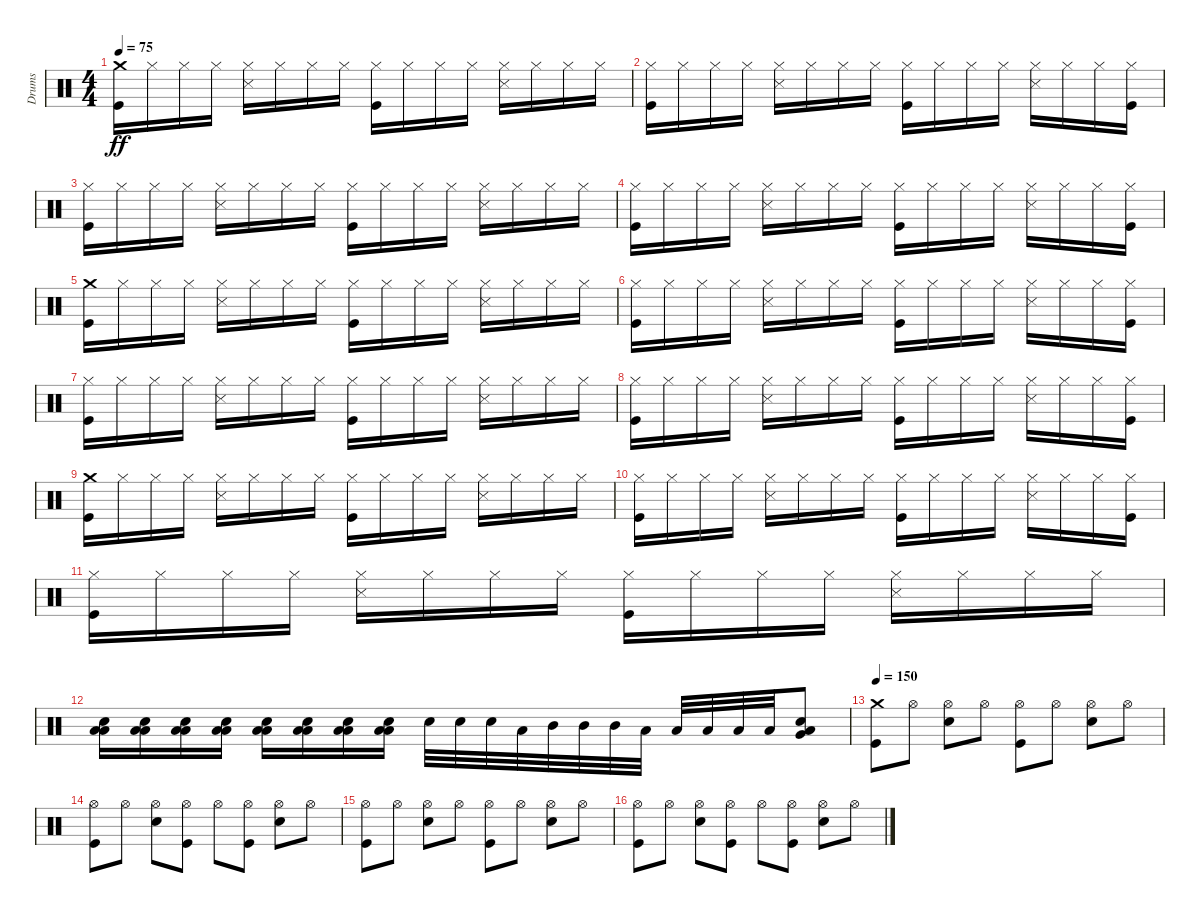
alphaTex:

\track ("Drums" "Drums") {instrument percussion}
\staff {score}
\articulation defaults
\ts (4 4)
\tempo 75
\clef neutral
\ks c
("Kick (hit)" "Crash medium (hit)").16{dy ff} "Hi-Hat (closed)".16 "Hi-Hat (closed)".16 "Hi-Hat (closed)".16 ("Snare (side stick) 3" "Hi-Hat (closed)").16 "Hi-Hat (closed)".16 "Hi-Hat (closed)".16 "Hi-Hat (closed)".16 ("Kick (hit)" "Hi-Hat (closed)").16 "Hi-Hat (closed)".16 "Hi-Hat (closed)".16 "Hi-Hat (closed)".16 ("Snare (side stick) 3" "Hi-Hat (closed)").16 "Hi-Hat (closed)".16 "Hi-Hat (closed)".16 "Hi-Hat (closed)".16 |
("Kick (hit)" "Hi-Hat (closed)").16 "Hi-Hat (closed)".16 "Hi-Hat (closed)".16 "Hi-Hat (closed)".16 ("Snare (side stick) 3" "Hi-Hat (closed)").16 "Hi-Hat (closed)".16 "Hi-Hat (closed)".16 "Hi-Hat (closed)".16 ("Kick (hit)" "Hi-Hat (closed)").16 "Hi-Hat (closed)".16 "Hi-Hat (closed)".16 "Hi-Hat (closed)".16 ("Snare (side stick) 3" "Hi-Hat (closed)").16 "Hi-Hat (closed)".16 "Hi-Hat (closed)".16 ("Kick (hit)" "Hi-Hat (closed)").16 |
("Kick (hit)" "Hi-Hat (closed)").16 "Hi-Hat (closed)".16 "Hi-Hat (closed)".16 "Hi-Hat (closed)".16 ("Snare (side stick) 3" "Hi-Hat (closed)").16 "Hi-Hat (closed)".16 "Hi-Hat (closed)".16 "Hi-Hat (closed)".16 ("Kick (hit)" "Hi-Hat (closed)").16 "Hi-Hat (closed)".16 "Hi-Hat (closed)".16 "Hi-Hat (closed)".16 ("Snare (side stick) 3" "Hi-Hat (closed)").16 "Hi-Hat (closed)".16 "Hi-Hat (closed)".16 "Hi-Hat (closed)".16 |
("Kick (hit)" "Hi-Hat (closed)").16 "Hi-Hat (closed)".16 "Hi-Hat (closed)".16 "Hi-Hat (closed)".16 ("Snare (side stick) 3" "Hi-Hat (closed)").16 "Hi-Hat (closed)".16 "Hi-Hat (closed)".16 "Hi-Hat (closed)".16 ("Kick (hit)" "Hi-Hat (closed)").16 "Hi-Hat (closed)".16 "Hi-Hat (closed)".16 "Hi-Hat (closed)".16 ("Snare (side stick) 3" "Hi-Hat (closed)").16 "Hi-Hat (closed)".16 "Hi-Hat (closed)".16 ("Kick (hit)" "Hi-Hat (closed)").16 |
("Kick (hit)" "Crash medium (hit)").16 "Hi-Hat (closed)".16 "Hi-Hat (closed)".16 "Hi-Hat (closed)".16 ("Snare (side stick) 3" "Hi-Hat (closed)").16 "Hi-Hat (closed)".16 "Hi-Hat (closed)".16 "Hi-Hat (closed)".16 ("Kick (hit)" "Hi-Hat (closed)").16 "Hi-Hat (closed)".16 "Hi-Hat (closed)".16 "Hi-Hat (closed)".16 ("Snare (side stick) 3" "Hi-Hat (closed)").16 "Hi-Hat (closed)".16 "Hi-Hat (closed)".16 "Hi-Hat (closed)".16 |
("Kick (hit)" "Hi-Hat (closed)").16 "Hi-Hat (closed)".16 "Hi-Hat (closed)".16 "Hi-Hat (closed)".16 ("Snare (side stick) 3" "Hi-Hat (closed)").16 "Hi-Hat (closed)".16 "Hi-Hat (closed)".16 "Hi-Hat (closed)".16 ("Kick (hit)" "Hi-Hat (closed)").16 "Hi-Hat (closed)".16 "Hi-Hat (closed)".16 "Hi-Hat (closed)".16 ("Snare (side stick) 3" "Hi-Hat (closed)").16 "Hi-Hat (closed)".16 "Hi-Hat (closed)".16 ("Kick (hit)" "Hi-Hat (closed)").16 |
("Kick (hit)" "Hi-Hat (closed)").16 "Hi-Hat (closed)".16 "Hi-Hat (closed)".16 "Hi-Hat (closed)".16 ("Snare (side stick) 3" "Hi-Hat (closed)").16 "Hi-Hat (closed)".16 "Hi-Hat (closed)".16 "Hi-Hat (closed)".16 ("Kick (hit)" "Hi-Hat (closed)").16 "Hi-Hat (closed)".16 "Hi-Hat (closed)".16 "Hi-Hat (closed)".16 ("Snare (side stick) 3" "Hi-Hat (closed)").16 "Hi-Hat (closed)".16 "Hi-Hat (closed)".16 "Hi-Hat (closed)".16 |
("Kick (hit)" "Hi-Hat (closed)").16 "Hi-Hat (closed)".16 "Hi-Hat (closed)".16 "Hi-Hat (closed)".16 ("Snare (side stick) 3" "Hi-Hat (closed)").16 "Hi-Hat (closed)".16 "Hi-Hat (closed)".16 "Hi-Hat (closed)".16 ("Kick (hit)" "Hi-Hat (closed)").16 "Hi-Hat (closed)".16 "Hi-Hat (closed)".16 "Hi-Hat (closed)".16 ("Snare (side stick) 3" "Hi-Hat (closed)").16 "Hi-Hat (closed)".16 "Hi-Hat (closed)".16 ("Kick (hit)" "Hi-Hat (closed)").16 |
("Kick (hit)" "Crash medium (hit)").16 "Hi-Hat (closed)".16 "Hi-Hat (closed)".16 "Hi-Hat (closed)".16 ("Snare (side stick) 3" "Hi-Hat (closed)").16 "Hi-Hat (closed)".16 "Hi-Hat (closed)".16 "Hi-Hat (closed)".16 ("Kick (hit)" "Hi-Hat (closed)").16 "Hi-Hat (closed)".16 "Hi-Hat (closed)".16 "Hi-Hat (closed)".16 ("Snare (side stick) 3" "Hi-Hat (closed)").16 "Hi-Hat (closed)".16 "Hi-Hat (closed)".16 "Hi-Hat (closed)".16 |
("Kick (hit)" "Hi-Hat (closed)").16 "Hi-Hat (closed)".16 "Hi-Hat (closed)".16 "Hi-Hat (closed)".16 ("Snare (side stick) 3" "Hi-Hat (closed)").16 "Hi-Hat (closed)".16 "Hi-Hat (closed)".16 "Hi-Hat (closed)".16 ("Kick (hit)" "Hi-Hat (closed)").16 "Hi-Hat (closed)".16 "Hi-Hat (closed)".16 "Hi-Hat (closed)".16 ("Snare (side stick) 3" "Hi-Hat (closed)").16 "Hi-Hat (closed)".16 "Hi-Hat (closed)".16 ("Kick (hit)" "Hi-Hat (closed)").16 |
("Kick (hit)" "Hi-Hat (closed)").16 "Hi-Hat (closed)".16 "Hi-Hat (closed)".16 "Hi-Hat (closed)".16 ("Snare (side stick) 3" "Hi-Hat (closed)").16 "Hi-Hat (closed)".16 "Hi-Hat (closed)".16 "Hi-Hat (closed)".16 ("Kick (hit)" "Hi-Hat (closed)").16 "Hi-Hat (closed)".16 "Hi-Hat (closed)".16 "Hi-Hat (closed)".16 ("Snare (side stick) 3" "Hi-Hat (closed)").16 "Hi-Hat (closed)".16 "Hi-Hat (closed)".16 "Hi-Hat (closed)".16 |
("Electric Snare (hit)" "Low Floor Tom (hit)" "Low Tom (hit)").16 ("Electric Snare (hit)" "Low Floor Tom (hit)" "Low Tom (hit)").16 ("Electric Snare (hit)" "Low Floor Tom (hit)" "Low Tom (hit)").16 ("Electric Snare (hit)" "Low Floor Tom (hit)" "Low Tom (hit)").16 ("Electric Snare (hit)" "Low Floor Tom (hit)" "Low Tom (hit)").16 ("Electric Snare (hit)" "Low Floor Tom (hit)" "Low Tom (hit)").16 ("Electric Snare (hit)" "Low Floor Tom (hit)" "Low Tom (hit)").16 ("Electric Snare (hit)" "Low Floor Tom (hit)" "Low Tom (hit)").16 "Electric Snare (hit)".32 "Electric Snare (hit)".32 "Electric Snare (hit)".32 "Low Floor Tom (hit)".32 "Mid Tom (hit)".32 "Mid Tom (hit)".32 "Mid Tom (hit)".32 "Low Floor Tom (hit)".32 "Low Tom (hit)".32 "Low Tom (hit)".32 "Low Tom (hit)".32 "Low Floor Tom (hit)".32 ("Electric Snare (hit)" "Very Low Tom (hit)" "Low Tom (hit)").8 |
\tempo 150
("Kick (hit)" "Crash medium (hit)").8 "Hi-Hat (open)".8 ("Electric Snare (hit)" "Hi-Hat (open)").8 "Hi-Hat (open)".8 ("Kick (hit)" "Hi-Hat (open)").8 "Hi-Hat (open)".8 ("Electric Snare (hit)" "Hi-Hat (open)").8 "Hi-Hat (open)".8 |
("Kick (hit)" "Hi-Hat (open)").8 "Hi-Hat (open)".8 ("Electric Snare (hit)" "Hi-Hat (open)").8 ("Kick (hit)" "Hi-Hat (open)").8 "Hi-Hat (open)".8 ("Kick (hit)" "Hi-Hat (open)").8 ("Electric Snare (hit)" "Hi-Hat (open)").8 "Hi-Hat (open)".8 |
("Kick (hit)" "Hi-Hat (open)").8 "Hi-Hat (open)".8 ("Electric Snare (hit)" "Hi-Hat (open)").8 "Hi-Hat (open)".8 ("Kick (hit)" "Hi-Hat (open)").8 "Hi-Hat (open)".8 ("Electric Snare (hit)" "Hi-Hat (open)").8 "Hi-Hat (open)".8 |
("Kick (hit)" "Hi-Hat (open)").8 "Hi-Hat (open)".8 ("Electric Snare (hit)" "Hi-Hat (open)").8 ("Kick (hit)" "Hi-Hat (open)").8 "Hi-Hat (open)".8 ("Kick (hit)" "Hi-Hat (open)").8 ("Electric Snare (hit)" "Hi-Hat (open)").8 "Hi-Hat (open)".8
